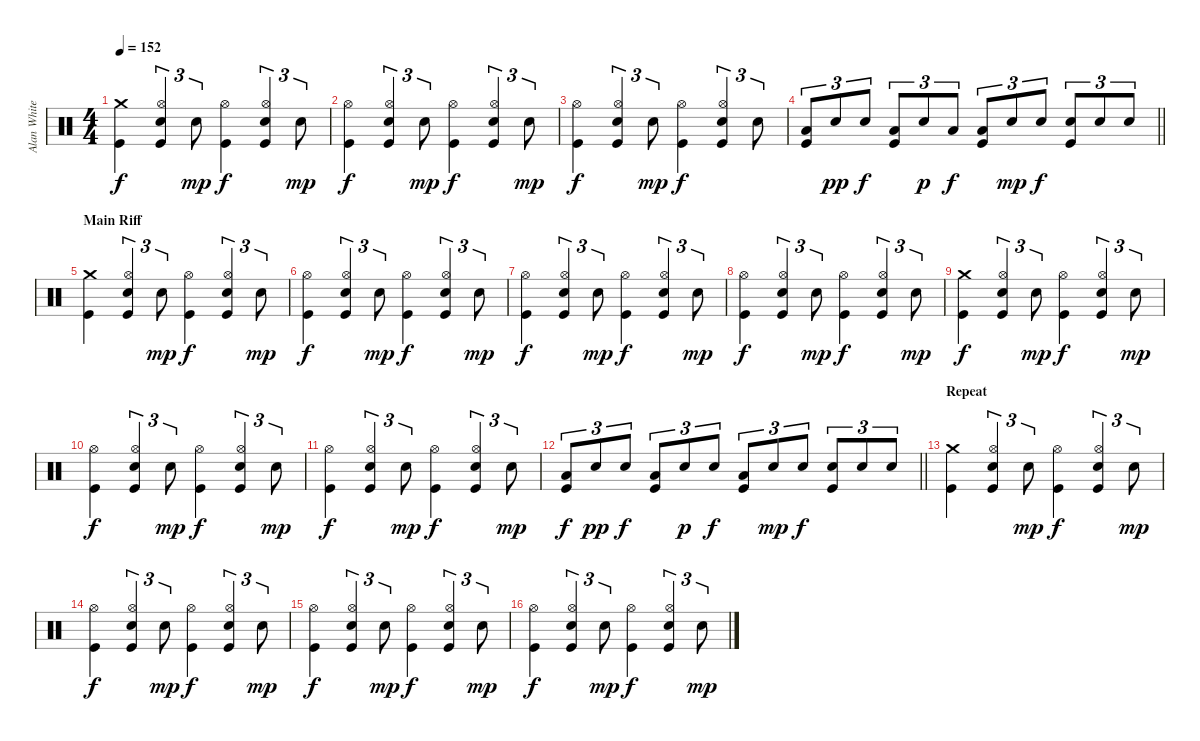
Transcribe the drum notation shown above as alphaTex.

\track ("Alan White" "Alan White") {instrument percussion}
\staff {score}
\articulation defaults
\ts (4 4)
\tempo 152
\clef neutral
\ks c
("Crash medium (hit)" "Kick (hit)").4{dy f} ("Hi-Hat (open)" "Electric Snare (hit)" "Kick (hit)").4{tu (3 2)} "Electric Snare (hit)".8{tu (3 2) dy mp} ("Hi-Hat (open)" "Kick (hit)").4{dy f} ("Hi-Hat (open)" "Electric Snare (hit)" "Kick (hit)").4{tu (3 2)} "Electric Snare (hit)".8{tu (3 2) dy mp} |
("Hi-Hat (open)" "Kick (hit)").4{dy f} ("Hi-Hat (open)" "Electric Snare (hit)" "Kick (hit)").4{tu (3 2)} "Electric Snare (hit)".8{tu (3 2) dy mp} ("Hi-Hat (open)" "Kick (hit)").4{dy f} ("Hi-Hat (open)" "Electric Snare (hit)" "Kick (hit)").4{tu (3 2)} "Electric Snare (hit)".8{tu (3 2) dy mp} |
("Hi-Hat (open)" "Kick (hit)").4{dy f} ("Hi-Hat (open)" "Electric Snare (hit)" "Kick (hit)").4{tu (3 2)} "Electric Snare (hit)".8{tu (3 2) dy mp} ("Hi-Hat (open)" "Kick (hit)").4{dy f} ("Hi-Hat (open)" "Electric Snare (hit)" "Kick (hit)").4{tu (3 2)} "Electric Snare (hit)".8{tu (3 2)} |
\barLineRight lightlight
("Low Tom (hit)" "Kick (hit)").8{tu (3 2)} "Electric Snare (hit)".8{tu (3 2) dy pp} "Electric Snare (hit)".8{tu (3 2) dy f} ("Low Tom (hit)" "Kick (hit)").8{tu (3 2)} "Electric Snare (hit)".8{tu (3 2) dy p} "Low Tom (hit)".8{tu (3 2) dy f} ("Low Tom (hit)" "Kick (hit)").8{tu (3 2)} "Electric Snare (hit)".8{tu (3 2) dy mp} "Electric Snare (hit)".8{tu (3 2) dy f} ("Electric Snare (hit)" "Kick (hit)").8{tu (3 2)} "Electric Snare (hit)".8{tu (3 2)} "Electric Snare (hit)".8{tu (3 2)} |
\section ("" "Main Riff")
("Crash medium (hit)" "Kick (hit)").4 ("Hi-Hat (open)" "Electric Snare (hit)" "Kick (hit)").4{tu (3 2)} "Electric Snare (hit)".8{tu (3 2) dy mp} ("Hi-Hat (open)" "Kick (hit)").4{dy f} ("Hi-Hat (open)" "Electric Snare (hit)" "Kick (hit)").4{tu (3 2)} "Electric Snare (hit)".8{tu (3 2) dy mp} |
("Hi-Hat (open)" "Kick (hit)").4{dy f} ("Hi-Hat (open)" "Electric Snare (hit)" "Kick (hit)").4{tu (3 2)} "Electric Snare (hit)".8{tu (3 2) dy mp} ("Hi-Hat (open)" "Kick (hit)").4{dy f} ("Hi-Hat (open)" "Electric Snare (hit)" "Kick (hit)").4{tu (3 2)} "Electric Snare (hit)".8{tu (3 2) dy mp} |
("Hi-Hat (open)" "Kick (hit)").4{dy f} ("Hi-Hat (open)" "Electric Snare (hit)" "Kick (hit)").4{tu (3 2)} "Electric Snare (hit)".8{tu (3 2) dy mp} ("Hi-Hat (open)" "Kick (hit)").4{dy f} ("Hi-Hat (open)" "Electric Snare (hit)" "Kick (hit)").4{tu (3 2)} "Electric Snare (hit)".8{tu (3 2) dy mp} |
("Hi-Hat (open)" "Kick (hit)").4{dy f} ("Hi-Hat (open)" "Electric Snare (hit)" "Kick (hit)").4{tu (3 2)} "Electric Snare (hit)".8{tu (3 2) dy mp} ("Hi-Hat (open)" "Kick (hit)").4{dy f} ("Hi-Hat (open)" "Electric Snare (hit)" "Kick (hit)").4{tu (3 2)} "Electric Snare (hit)".8{tu (3 2) dy mp} |
("Crash medium (hit)" "Kick (hit)").4{dy f} ("Hi-Hat (open)" "Electric Snare (hit)" "Kick (hit)").4{tu (3 2)} "Electric Snare (hit)".8{tu (3 2) dy mp} ("Hi-Hat (open)" "Kick (hit)").4{dy f} ("Hi-Hat (open)" "Electric Snare (hit)" "Kick (hit)").4{tu (3 2)} "Electric Snare (hit)".8{tu (3 2) dy mp} |
("Hi-Hat (open)" "Kick (hit)").4{dy f} ("Hi-Hat (open)" "Electric Snare (hit)" "Kick (hit)").4{tu (3 2)} "Electric Snare (hit)".8{tu (3 2) dy mp} ("Hi-Hat (open)" "Kick (hit)").4{dy f} ("Hi-Hat (open)" "Electric Snare (hit)" "Kick (hit)").4{tu (3 2)} "Electric Snare (hit)".8{tu (3 2) dy mp} |
("Hi-Hat (open)" "Kick (hit)").4{dy f} ("Hi-Hat (open)" "Electric Snare (hit)" "Kick (hit)").4{tu (3 2)} "Electric Snare (hit)".8{tu (3 2) dy mp} ("Hi-Hat (open)" "Kick (hit)").4{dy f} ("Hi-Hat (open)" "Electric Snare (hit)" "Kick (hit)").4{tu (3 2)} "Electric Snare (hit)".8{tu (3 2) dy mp} |
\barLineRight lightlight
("Low Tom (hit)" "Kick (hit)").8{tu (3 2) dy f} "Electric Snare (hit)".8{tu (3 2) dy pp} "Electric Snare (hit)".8{tu (3 2) dy f} ("Low Tom (hit)" "Kick (hit)").8{tu (3 2)} "Electric Snare (hit)".8{tu (3 2) dy p} "Electric Snare (hit)".8{tu (3 2) dy f} ("Low Floor Tom (hit)" "Kick (hit)").8{tu (3 2)} "Electric Snare (hit)".8{tu (3 2) dy mp} "Electric Snare (hit)".8{tu (3 2) dy f} ("Electric Snare (hit)" "Kick (hit)").8{tu (3 2)} "Electric Snare (hit)".8{tu (3 2)} "Electric Snare (hit)".8{tu (3 2)} |
\section ("" "Repeat")
("Crash medium (hit)" "Kick (hit)").4 ("Hi-Hat (open)" "Electric Snare (hit)" "Kick (hit)").4{tu (3 2)} "Electric Snare (hit)".8{tu (3 2) dy mp} ("Hi-Hat (open)" "Kick (hit)").4{dy f} ("Hi-Hat (open)" "Electric Snare (hit)" "Kick (hit)").4{tu (3 2)} "Electric Snare (hit)".8{tu (3 2) dy mp} |
("Hi-Hat (open)" "Kick (hit)").4{dy f} ("Hi-Hat (open)" "Electric Snare (hit)" "Kick (hit)").4{tu (3 2)} "Electric Snare (hit)".8{tu (3 2) dy mp} ("Hi-Hat (open)" "Kick (hit)").4{dy f} ("Hi-Hat (open)" "Electric Snare (hit)" "Kick (hit)").4{tu (3 2)} "Electric Snare (hit)".8{tu (3 2) dy mp} |
("Hi-Hat (open)" "Kick (hit)").4{dy f} ("Hi-Hat (open)" "Electric Snare (hit)" "Kick (hit)").4{tu (3 2)} "Electric Snare (hit)".8{tu (3 2) dy mp} ("Hi-Hat (open)" "Kick (hit)").4{dy f} ("Hi-Hat (open)" "Electric Snare (hit)" "Kick (hit)").4{tu (3 2)} "Electric Snare (hit)".8{tu (3 2) dy mp} |
("Hi-Hat (open)" "Kick (hit)").4{dy f} ("Hi-Hat (open)" "Electric Snare (hit)" "Kick (hit)").4{tu (3 2)} "Electric Snare (hit)".8{tu (3 2) dy mp} ("Hi-Hat (open)" "Kick (hit)").4{dy f} ("Hi-Hat (open)" "Electric Snare (hit)" "Kick (hit)").4{tu (3 2)} "Electric Snare (hit)".8{tu (3 2) dy mp}
